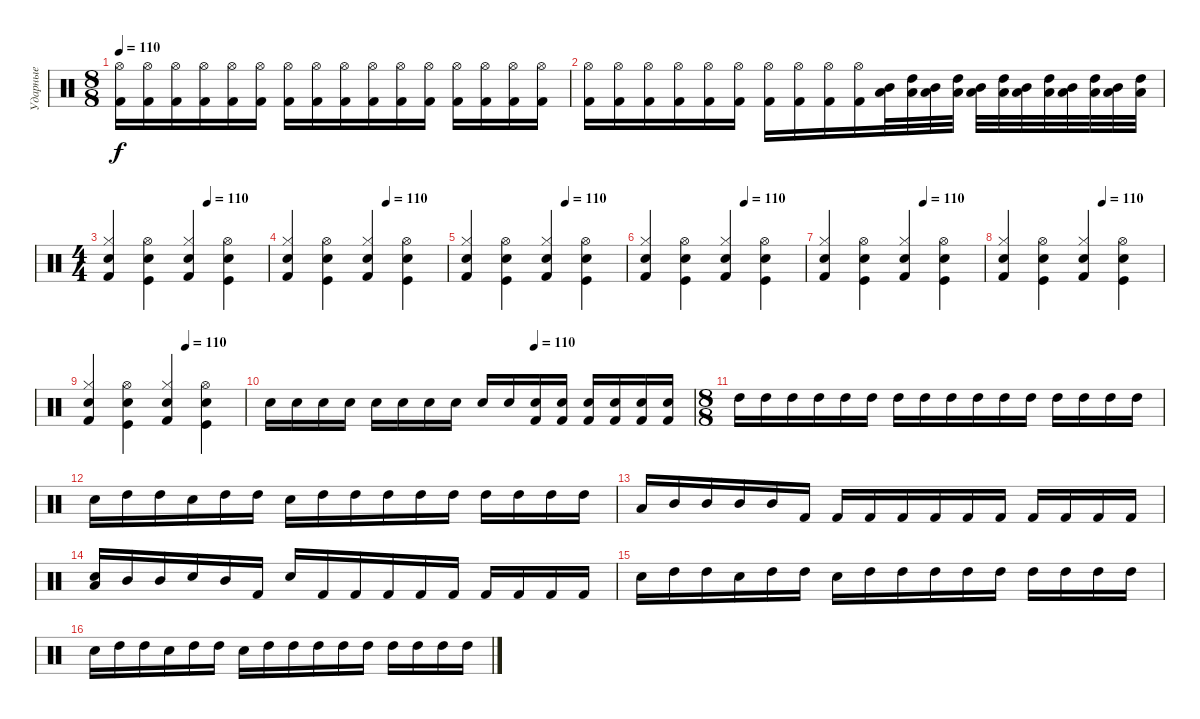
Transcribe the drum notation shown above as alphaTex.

\track ("Ударные" "Ударные") {instrument percussion}
\staff {score}
\articulation defaults
\ts (8 8)
\tempo 110
\clef neutral
\ks c
("Kick (hit) 2" "Hi-Hat (open)").16{dy f} ("Kick (hit) 2" "Hi-Hat (open)").16 ("Kick (hit) 2" "Hi-Hat (open)").16 ("Kick (hit) 2" "Hi-Hat (open)").16 ("Kick (hit) 2" "Hi-Hat (open)").16 ("Kick (hit) 2" "Hi-Hat (open)").16 ("Kick (hit) 2" "Hi-Hat (open)").16 ("Kick (hit) 2" "Hi-Hat (open)").16 ("Kick (hit) 2" "Hi-Hat (open)").16 ("Kick (hit) 2" "Hi-Hat (open)").16 ("Kick (hit) 2" "Hi-Hat (open)").16 ("Kick (hit) 2" "Hi-Hat (open)").16 ("Kick (hit) 2" "Hi-Hat (open)").16 ("Kick (hit) 2" "Hi-Hat (open)").16 ("Kick (hit) 2" "Hi-Hat (open)").16 ("Kick (hit) 2" "Hi-Hat (open)").16 |
("Kick (hit) 2" "Hi-Hat (open)").16 ("Kick (hit) 2" "Hi-Hat (open)").16 ("Kick (hit) 2" "Hi-Hat (open)").16 ("Kick (hit) 2" "Hi-Hat (open)").16 ("Kick (hit) 2" "Hi-Hat (open)").16 ("Kick (hit) 2" "Hi-Hat (open)").16 ("Kick (hit) 2" "Hi-Hat (open)").16 ("Kick (hit) 2" "Hi-Hat (open)").16 ("Kick (hit) 2" "Hi-Hat (open)").16 ("Kick (hit) 2" "Hi-Hat (open)").16 ("Mid Tom (hit)" "Low Tom (hit)").32 ("High Tom (hit)" "Low Tom (hit)").32 ("Mid Tom (hit)" "Low Tom (hit)").32 ("High Tom (hit)" "Low Tom (hit)").32 ("Mid Tom (hit)" "Low Tom (hit)").32 ("High Tom (hit)" "Low Tom (hit)").32 ("Mid Tom (hit)" "Low Tom (hit)").32 ("High Tom (hit)" "Low Tom (hit)").32 ("Mid Tom (hit)" "Low Tom (hit)").32 ("High Tom (hit)" "Low Tom (hit)").32 ("Mid Tom (hit)" "Low Tom (hit)").32 ("High Tom (hit)" "Low Tom (hit)").32 |
\ts (4 4)
\tempo (110 0.625)
("Hi-Hat (closed)" "Snare (hit) 2" "Kick (hit) 2").4 ("Electric Snare (hit)" "Hi-Hat (open)" "Kick (hit)").4 ("Hi-Hat (closed)" "Snare (hit) 2" "Kick (hit) 2").4 ("Electric Snare (hit)" "Hi-Hat (open)" "Kick (hit)").4 |
\tempo (110 0.625)
("Hi-Hat (closed)" "Snare (hit) 2" "Kick (hit) 2").4 ("Electric Snare (hit)" "Hi-Hat (open)" "Kick (hit)").4 ("Hi-Hat (closed)" "Snare (hit) 2" "Kick (hit) 2").4 ("Electric Snare (hit)" "Hi-Hat (open)" "Kick (hit)").4 |
\tempo (110 0.625)
("Hi-Hat (closed)" "Snare (hit) 2" "Kick (hit) 2").4 ("Electric Snare (hit)" "Hi-Hat (open)" "Kick (hit)").4 ("Hi-Hat (closed)" "Snare (hit) 2" "Kick (hit) 2").4 ("Electric Snare (hit)" "Hi-Hat (open)" "Kick (hit)").4 |
\tempo (110 0.625)
("Hi-Hat (closed)" "Snare (hit) 2" "Kick (hit) 2").4 ("Electric Snare (hit)" "Hi-Hat (open)" "Kick (hit)").4 ("Hi-Hat (closed)" "Snare (hit) 2" "Kick (hit) 2").4 ("Electric Snare (hit)" "Hi-Hat (open)" "Kick (hit)").4 |
\tempo (110 0.625)
("Hi-Hat (closed)" "Snare (hit) 2" "Kick (hit) 2").4 ("Electric Snare (hit)" "Hi-Hat (open)" "Kick (hit)").4 ("Hi-Hat (closed)" "Snare (hit) 2" "Kick (hit) 2").4 ("Electric Snare (hit)" "Hi-Hat (open)" "Kick (hit)").4 |
\tempo (110 0.625)
("Hi-Hat (closed)" "Snare (hit) 2" "Kick (hit) 2").4 ("Electric Snare (hit)" "Hi-Hat (open)" "Kick (hit)").4 ("Hi-Hat (closed)" "Snare (hit) 2" "Kick (hit) 2").4 ("Electric Snare (hit)" "Hi-Hat (open)" "Kick (hit)").4 |
\tempo (110 0.625)
("Hi-Hat (closed)" "Snare (hit) 2" "Kick (hit) 2").4 ("Electric Snare (hit)" "Hi-Hat (open)" "Kick (hit)").4 ("Hi-Hat (closed)" "Snare (hit) 2" "Kick (hit) 2").4 ("Electric Snare (hit)" "Hi-Hat (open)" "Kick (hit)").4 |
\tempo (110 0.625)
"Electric Snare (hit)".16 "Electric Snare (hit)".16 "Electric Snare (hit)".16 "Electric Snare (hit)".16 "Electric Snare (hit)".16 "Electric Snare (hit)".16 "Electric Snare (hit)".16 "Electric Snare (hit)".16 "Electric Snare (hit)".16 "Electric Snare (hit)".16 ("Electric Snare (hit)" "Kick (hit) 2").16 ("Electric Snare (hit)" "Kick (hit) 2").16 ("Electric Snare (hit)" "Kick (hit) 2").16 ("Electric Snare (hit)" "Kick (hit) 2").16 ("Electric Snare (hit)" "Kick (hit) 2").16 ("Electric Snare (hit)" "Kick (hit) 2").16 |
\ts (8 8)
"High Tom (hit)".16 "High Tom (hit)".16 "High Tom (hit)".16 "High Tom (hit)".16 "High Tom (hit)".16 "High Tom (hit)".16 "High Tom (hit)".16 "High Tom (hit)".16 "High Tom (hit)".16 "High Tom (hit)".16 "High Tom (hit)".16 "High Tom (hit)".16 "High Tom (hit)".16 "High Tom (hit)".16 "High Tom (hit)".16 "High Tom (hit)".16 |
"Electric Snare (hit)".16 "High Tom (hit)".16 "High Tom (hit)".16 "Electric Snare (hit)".16 "High Tom (hit)".16 "High Tom (hit)".16 "Electric Snare (hit)".16 "High Tom (hit)".16 "High Tom (hit)".16 "High Tom (hit)".16 "High Tom (hit)".16 "High Tom (hit)".16 "High Tom (hit)".16 "High Tom (hit)".16 "High Tom (hit)".16 "High Tom (hit)".16 |
"Low Tom (hit)".16 "Mid Tom (hit)".16 "Mid Tom (hit)".16 "Mid Tom (hit)".16 "Mid Tom (hit)".16 "Kick (hit) 2".16 "Kick (hit) 2".16 "Kick (hit) 2".16 "Kick (hit) 2".16 "Kick (hit) 2".16 "Kick (hit) 2".16 "Kick (hit) 2".16 "Kick (hit) 2".16 "Kick (hit) 2".16 "Kick (hit) 2".16 "Kick (hit) 2".16 |
("Electric Snare (hit)" "Low Tom (hit)").16 "Mid Tom (hit)".16 "Mid Tom (hit)".16 "Electric Snare (hit)".16 "Mid Tom (hit)".16 "Kick (hit) 2".16 "Electric Snare (hit)".16 "Kick (hit) 2".16 "Kick (hit) 2".16 "Kick (hit) 2".16 "Kick (hit) 2".16 "Kick (hit) 2".16 "Kick (hit) 2".16 "Kick (hit) 2".16 "Kick (hit) 2".16 "Kick (hit) 2".16 |
"Electric Snare (hit)".16 "High Tom (hit)".16 "High Tom (hit)".16 "Electric Snare (hit)".16 "High Tom (hit)".16 "High Tom (hit)".16 "Electric Snare (hit)".16 "High Tom (hit)".16 "High Tom (hit)".16 "High Tom (hit)".16 "High Tom (hit)".16 "High Tom (hit)".16 "High Tom (hit)".16 "High Tom (hit)".16 "High Tom (hit)".16 "High Tom (hit)".16 |
"Electric Snare (hit)".16 "High Tom (hit)".16 "High Tom (hit)".16 "Electric Snare (hit)".16 "High Tom (hit)".16 "High Tom (hit)".16 "Electric Snare (hit)".16 "High Tom (hit)".16 "High Tom (hit)".16 "High Tom (hit)".16 "High Tom (hit)".16 "High Tom (hit)".16 "High Tom (hit)".16 "High Tom (hit)".16 "High Tom (hit)".16 "High Tom (hit)".16
